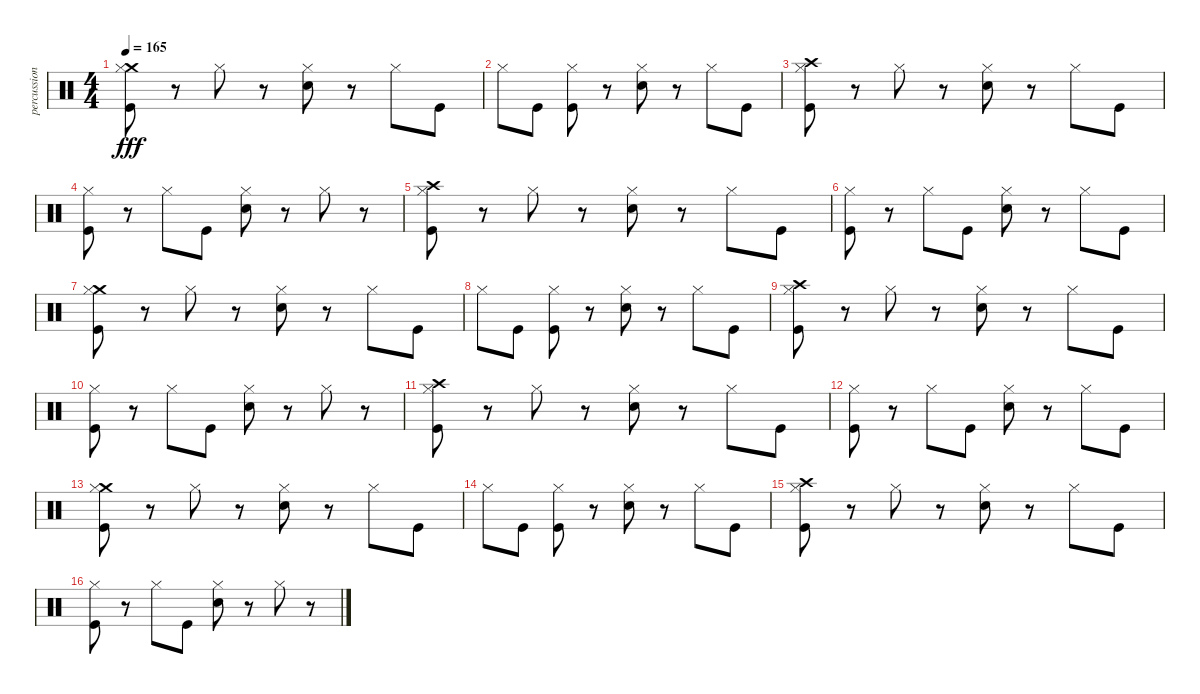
\track ("percussion (Paice)" "percussion") {instrument percussion}
\staff {score}
\articulation defaults
\ts (4 4)
\tempo 165
\clef neutral
\ks c
("Crash medium (hit)" "Kick (hit)" "Hi-Hat (closed)").8{dy fff} r.8 "Hi-Hat (closed)".8 r.8 ("Snare (hit) 2" "Hi-Hat (closed)").8 r.8 "Hi-Hat (closed)".8 "Kick (hit)".8 |
"Hi-Hat (closed)".8 "Kick (hit)".8 ("Kick (hit)" "Hi-Hat (closed)").8 r.8 ("Snare (hit) 2" "Hi-Hat (closed)").8 r.8 "Hi-Hat (closed)".8 "Kick (hit)".8 |
("Crash high (hit)" "Kick (hit)" "Hi-Hat (closed)").8 r.8 "Hi-Hat (closed)".8 r.8 ("Snare (hit) 2" "Hi-Hat (closed)").8 r.8 "Hi-Hat (closed)".8 "Kick (hit)".8 |
("Kick (hit)" "Hi-Hat (closed)").8 r.8 "Hi-Hat (closed)".8 "Kick (hit)".8 ("Snare (hit) 2" "Hi-Hat (closed)").8 r.8 "Hi-Hat (closed)".8 r.8 |
("Crash high (hit)" "Kick (hit)" "Hi-Hat (closed)").8 r.8 "Hi-Hat (closed)".8 r.8 ("Snare (hit) 2" "Hi-Hat (closed)").8 r.8 "Hi-Hat (closed)".8 "Kick (hit)".8 |
("Kick (hit)" "Hi-Hat (closed)").8 r.8 "Hi-Hat (closed)".8 "Kick (hit)".8 ("Snare (hit) 2" "Hi-Hat (closed)").8 r.8 "Hi-Hat (closed)".8 "Kick (hit)".8 |
("Crash medium (hit)" "Kick (hit)" "Hi-Hat (closed)").8 r.8 "Hi-Hat (closed)".8 r.8 ("Snare (hit) 2" "Hi-Hat (closed)").8 r.8 "Hi-Hat (closed)".8 "Kick (hit)".8 |
"Hi-Hat (closed)".8 "Kick (hit)".8 ("Kick (hit)" "Hi-Hat (closed)").8 r.8 ("Snare (hit) 2" "Hi-Hat (closed)").8 r.8 "Hi-Hat (closed)".8 "Kick (hit)".8 |
("Crash high (hit)" "Kick (hit)" "Hi-Hat (closed)").8 r.8 "Hi-Hat (closed)".8 r.8 ("Snare (hit) 2" "Hi-Hat (closed)").8 r.8 "Hi-Hat (closed)".8 "Kick (hit)".8 |
("Kick (hit)" "Hi-Hat (closed)").8 r.8 "Hi-Hat (closed)".8 "Kick (hit)".8 ("Snare (hit) 2" "Hi-Hat (closed)").8 r.8 "Hi-Hat (closed)".8 r.8 |
("Crash high (hit)" "Kick (hit)" "Hi-Hat (closed)").8 r.8 "Hi-Hat (closed)".8 r.8 ("Snare (hit) 2" "Hi-Hat (closed)").8 r.8 "Hi-Hat (closed)".8 "Kick (hit)".8 |
("Kick (hit)" "Hi-Hat (closed)").8 r.8 "Hi-Hat (closed)".8 "Kick (hit)".8 ("Snare (hit) 2" "Hi-Hat (closed)").8 r.8 "Hi-Hat (closed)".8 "Kick (hit)".8 |
("Crash medium (hit)" "Kick (hit)" "Hi-Hat (closed)").8 r.8 "Hi-Hat (closed)".8 r.8 ("Snare (hit) 2" "Hi-Hat (closed)").8 r.8 "Hi-Hat (closed)".8 "Kick (hit)".8 |
"Hi-Hat (closed)".8 "Kick (hit)".8 ("Kick (hit)" "Hi-Hat (closed)").8 r.8 ("Snare (hit) 2" "Hi-Hat (closed)").8 r.8 "Hi-Hat (closed)".8 "Kick (hit)".8 |
("Crash high (hit)" "Kick (hit)" "Hi-Hat (closed)").8 r.8 "Hi-Hat (closed)".8 r.8 ("Snare (hit) 2" "Hi-Hat (closed)").8 r.8 "Hi-Hat (closed)".8 "Kick (hit)".8 |
("Kick (hit)" "Hi-Hat (closed)").8 r.8 "Hi-Hat (closed)".8 "Kick (hit)".8 ("Snare (hit) 2" "Hi-Hat (closed)").8 r.8 "Hi-Hat (closed)".8 r.8
